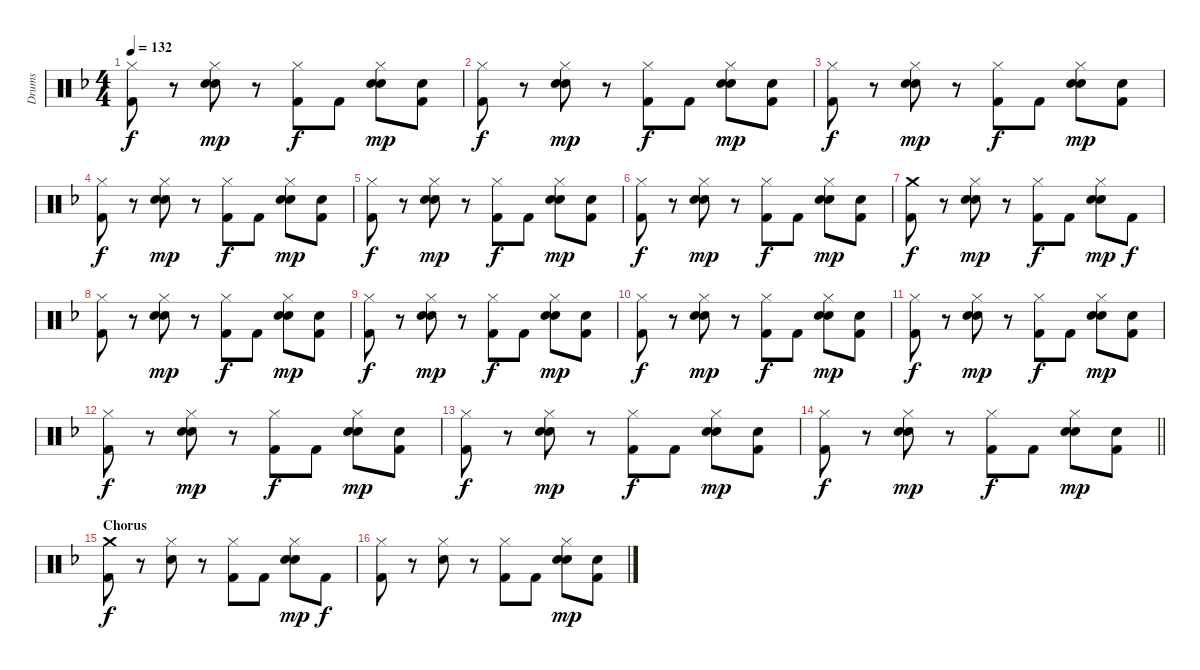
\track ("Drums" "Drums") {instrument percussion}
\staff {score}
\articulation defaults
\ts (4 4)
\tempo 132
\clef neutral
\ks f
("Hi-Hat (closed)" "Kick (hit) 2").8{dy f} r.8 ("Hi-Hat (closed)" "Hand Clap (hit)" "Snare (hit) 2").8{dy mp} r.8 ("Hi-Hat (closed)" "Kick (hit) 2").8{dy f} "Kick (hit) 2".8 ("Hi-Hat (closed)" "Hand Clap (hit)" "Snare (hit) 2").8{dy mp} ("Hand Clap (hit)" "Kick (hit) 2").8 |
("Hi-Hat (closed)" "Kick (hit) 2").8{dy f} r.8 ("Hi-Hat (closed)" "Hand Clap (hit)" "Snare (hit) 2").8{dy mp} r.8 ("Hi-Hat (closed)" "Kick (hit) 2").8{dy f} "Kick (hit) 2".8 ("Hi-Hat (closed)" "Hand Clap (hit)" "Snare (hit) 2").8{dy mp} ("Hand Clap (hit)" "Kick (hit) 2").8 |
("Hi-Hat (closed)" "Kick (hit) 2").8{dy f} r.8 ("Hi-Hat (closed)" "Hand Clap (hit)" "Snare (hit) 2").8{dy mp} r.8 ("Hi-Hat (closed)" "Kick (hit) 2").8{dy f} "Kick (hit) 2".8 ("Hi-Hat (closed)" "Hand Clap (hit)" "Snare (hit) 2").8{dy mp} ("Hand Clap (hit)" "Kick (hit) 2").8 |
("Hi-Hat (closed)" "Kick (hit) 2").8{dy f} r.8 ("Hi-Hat (closed)" "Hand Clap (hit)" "Snare (hit) 2").8{dy mp} r.8 ("Hi-Hat (closed)" "Kick (hit) 2").8{dy f} "Kick (hit) 2".8 ("Hi-Hat (closed)" "Hand Clap (hit)" "Snare (hit) 2").8{dy mp} ("Hand Clap (hit)" "Kick (hit) 2").8 |
("Hi-Hat (closed)" "Kick (hit) 2").8{dy f} r.8 ("Hi-Hat (closed)" "Hand Clap (hit)" "Snare (hit) 2").8{dy mp} r.8 ("Hi-Hat (closed)" "Kick (hit) 2").8{dy f} "Kick (hit) 2".8 ("Hi-Hat (closed)" "Hand Clap (hit)" "Snare (hit) 2").8{dy mp} ("Hand Clap (hit)" "Kick (hit) 2").8 |
("Hi-Hat (closed)" "Kick (hit) 2").8{dy f} r.8 ("Hi-Hat (closed)" "Hand Clap (hit)" "Snare (hit) 2").8{dy mp} r.8 ("Hi-Hat (closed)" "Kick (hit) 2").8{dy f} "Kick (hit) 2".8 ("Hi-Hat (closed)" "Hand Clap (hit)" "Snare (hit) 2").8{dy mp} ("Hand Clap (hit)" "Kick (hit) 2").8 |
("Crash medium (hit)" "Kick (hit) 2").8{dy f} r.8 ("Hi-Hat (closed)" "Hand Clap (hit)" "Snare (hit) 2").8{dy mp} r.8 ("Hi-Hat (closed)" "Kick (hit) 2").8{dy f} "Kick (hit) 2".8 ("Hi-Hat (closed)" "Hand Clap (hit)" "Snare (hit) 2").8{dy mp} "Kick (hit) 2".8{dy f} |
("Hi-Hat (closed)" "Kick (hit) 2").8 r.8 ("Hi-Hat (closed)" "Hand Clap (hit)" "Snare (hit) 2").8{dy mp} r.8 ("Hi-Hat (closed)" "Kick (hit) 2").8{dy f} "Kick (hit) 2".8 ("Hi-Hat (closed)" "Hand Clap (hit)" "Snare (hit) 2").8{dy mp} ("Hand Clap (hit)" "Kick (hit) 2").8 |
("Hi-Hat (closed)" "Kick (hit) 2").8{dy f} r.8 ("Hi-Hat (closed)" "Hand Clap (hit)" "Snare (hit) 2").8{dy mp} r.8 ("Hi-Hat (closed)" "Kick (hit) 2").8{dy f} "Kick (hit) 2".8 ("Hi-Hat (closed)" "Hand Clap (hit)" "Snare (hit) 2").8{dy mp} ("Hand Clap (hit)" "Kick (hit) 2").8 |
("Hi-Hat (closed)" "Kick (hit) 2").8{dy f} r.8 ("Hi-Hat (closed)" "Hand Clap (hit)" "Snare (hit) 2").8{dy mp} r.8 ("Hi-Hat (closed)" "Kick (hit) 2").8{dy f} "Kick (hit) 2".8 ("Hi-Hat (closed)" "Hand Clap (hit)" "Snare (hit) 2").8{dy mp} ("Hand Clap (hit)" "Kick (hit) 2").8 |
("Hi-Hat (closed)" "Kick (hit) 2").8{dy f} r.8 ("Hi-Hat (closed)" "Hand Clap (hit)" "Snare (hit) 2").8{dy mp} r.8 ("Hi-Hat (closed)" "Kick (hit) 2").8{dy f} "Kick (hit) 2".8 ("Hi-Hat (closed)" "Hand Clap (hit)" "Snare (hit) 2").8{dy mp} ("Hand Clap (hit)" "Kick (hit) 2").8 |
("Hi-Hat (closed)" "Kick (hit) 2").8{dy f} r.8 ("Hi-Hat (closed)" "Hand Clap (hit)" "Snare (hit) 2").8{dy mp} r.8 ("Hi-Hat (closed)" "Kick (hit) 2").8{dy f} "Kick (hit) 2".8 ("Hi-Hat (closed)" "Hand Clap (hit)" "Snare (hit) 2").8{dy mp} ("Hand Clap (hit)" "Kick (hit) 2").8 |
("Hi-Hat (closed)" "Kick (hit) 2").8{dy f} r.8 ("Hi-Hat (closed)" "Hand Clap (hit)" "Snare (hit) 2").8{dy mp} r.8 ("Hi-Hat (closed)" "Kick (hit) 2").8{dy f} "Kick (hit) 2".8 ("Hi-Hat (closed)" "Hand Clap (hit)" "Snare (hit) 2").8{dy mp} ("Hand Clap (hit)" "Kick (hit) 2").8 |
\barLineRight lightlight
("Hi-Hat (closed)" "Kick (hit) 2").8{dy f} r.8 ("Hi-Hat (closed)" "Hand Clap (hit)" "Snare (hit) 2").8{dy mp} r.8 ("Hi-Hat (closed)" "Kick (hit) 2").8{dy f} "Kick (hit) 2".8 ("Hi-Hat (closed)" "Hand Clap (hit)" "Snare (hit) 2").8{dy mp} ("Hand Clap (hit)" "Kick (hit) 2").8 |
\section ("" "Chorus")
("Crash medium (hit)" "Kick (hit) 2").8{dy f} r.8 ("Hi-Hat (closed)" "Snare (hit) 2").8 r.8 ("Hi-Hat (closed)" "Kick (hit) 2").8 "Kick (hit) 2".8 ("Hi-Hat (closed)" "Hand Clap (hit)" "Snare (hit) 2").8{dy mp} "Kick (hit) 2".8{dy f} |
("Hi-Hat (closed)" "Kick (hit) 2").8 r.8 ("Hi-Hat (closed)" "Snare (hit) 2").8 r.8 ("Hi-Hat (closed)" "Kick (hit) 2").8 "Kick (hit) 2".8 ("Hi-Hat (closed)" "Hand Clap (hit)" "Snare (hit) 2").8{dy mp} ("Hand Clap (hit)" "Kick (hit) 2").8
